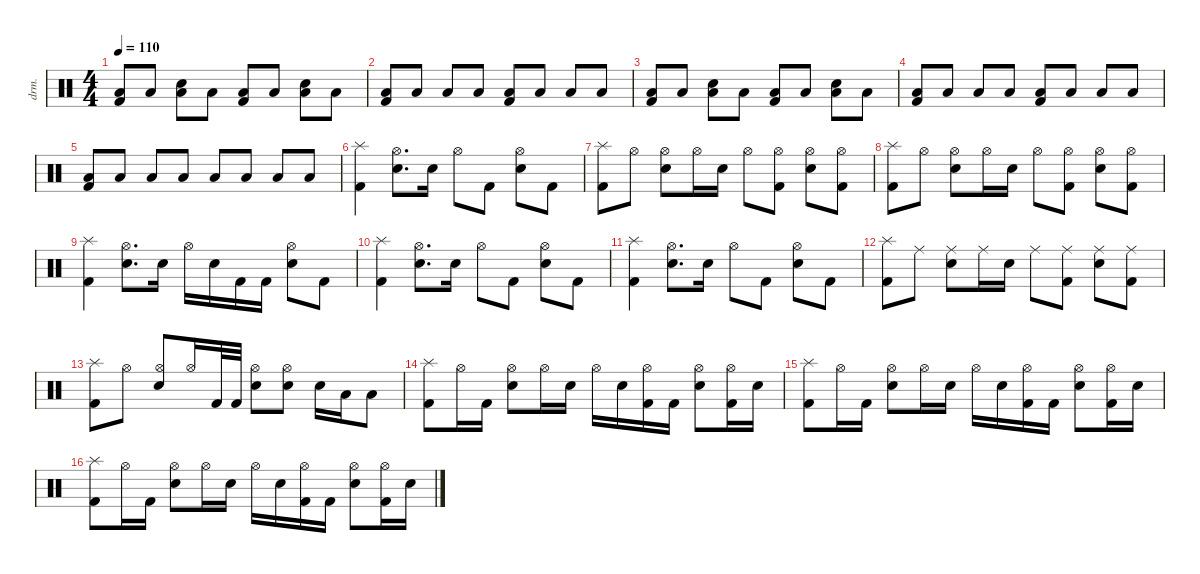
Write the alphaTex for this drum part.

\defaultSystemsLayout 4
\hideDynamics
\bracketExtendMode nobrackets
\track ("Drumkit" "drm.") {instrument percussion}
\staff {score}
\articulation defaults
\ts (4 4)
\tempo 110
\clef neutral
\ks c
("Kick (hit) 2" "Low Tom (hit)").8{dy mf beam Up} "Low Tom (hit)".8{beam Up} ("Low Tom (hit)" "Snare (hit) 2").8{beam Down} "Low Tom (hit)".8{beam Down} ("Low Tom (hit)" "Kick (hit) 2").8{beam Up} "Low Tom (hit)".8{beam Up} ("Snare (hit) 2" "Low Tom (hit)").8{beam Down} "Low Tom (hit)".8{beam Down} |
("Kick (hit) 2" "Low Tom (hit)").8{beam Up} "Low Tom (hit)".8{beam Up} "Low Tom (hit)".8{beam Up} "Low Tom (hit)".8{beam Up} ("Low Tom (hit)" "Kick (hit) 2").8{beam Up} "Low Tom (hit)".8{beam Up} "Low Tom (hit)".8{beam Up} "Low Tom (hit)".8{beam Up} |
("Kick (hit) 2" "Low Tom (hit)").8{beam Up} "Low Tom (hit)".8{beam Up} ("Low Tom (hit)" "Snare (hit) 2").8{beam Down} "Low Tom (hit)".8{beam Down} ("Low Tom (hit)" "Kick (hit) 2").8{beam Up} "Low Tom (hit)".8{beam Up} ("Snare (hit) 2" "Low Tom (hit)").8{beam Down} "Low Tom (hit)".8{beam Down} |
("Kick (hit) 2" "Low Tom (hit)").8{beam Up} "Low Tom (hit)".8{beam Up} "Low Tom (hit)".8{beam Up} "Low Tom (hit)".8{beam Up} ("Low Tom (hit)" "Kick (hit) 2").8{beam Up} "Low Tom (hit)".8{beam Up} "Low Tom (hit)".8{beam Up} "Low Tom (hit)".8{beam Up} |
("Kick (hit) 2" "Low Tom (hit)").8{beam Up} "Low Tom (hit)".8{beam Up} "Low Tom (hit)".8{beam Up} "Low Tom (hit)".8{beam Up} "Low Tom (hit)".8{beam Up} "Low Tom (hit)".8{beam Up} "Low Tom (hit)".8{beam Up} "Low Tom (hit)".8{beam Up} |
("Kick (hit) 2" "Splash (hit)").4{beam Down} ("Hi-Hat (open)" "Snare (hit) 2").8{d beam Down} "Snare (hit) 2".16{beam Down} "Hi-Hat (open)".8{beam Down} "Kick (hit) 2".8{beam Down} ("Snare (hit) 2" "Hi-Hat (open)").8{beam Down} "Kick (hit) 2".8{beam Down} |
("Splash (hit)" "Kick (hit) 2").8{beam Down} "Hi-Hat (open)".8{beam Down} ("Hi-Hat (open)" "Snare (hit) 2").8{beam Down} "Hi-Hat (open)".16{beam Down} "Snare (hit) 2".16{beam Down} "Hi-Hat (open)".8{beam Down} ("Hi-Hat (open)" "Kick (hit) 2").8{beam Down} ("Hi-Hat (open)" "Snare (hit) 2").8{beam Down} ("Hi-Hat (open)" "Kick (hit) 2").8{beam Down} |
("Splash (hit)" "Kick (hit) 2").8{beam Down} "Hi-Hat (open)".8{beam Down} ("Hi-Hat (open)" "Snare (hit) 2").8{beam Down} "Hi-Hat (open)".16{beam Down} "Snare (hit) 2".16{beam Down} "Hi-Hat (open)".8{beam Down} ("Hi-Hat (open)" "Kick (hit) 2").8{beam Down} ("Hi-Hat (open)" "Snare (hit) 2").8{beam Down} ("Hi-Hat (open)" "Kick (hit) 2").8{beam Down} |
("Kick (hit) 2" "Splash (hit)").4{beam Down} ("Hi-Hat (open)" "Snare (hit) 2").8{d beam Down} "Snare (hit) 2".16{beam Down} "Hi-Hat (open)".16{beam Down} "Snare (hit) 2".16{beam Down} "Kick (hit) 2".16{beam Down} "Kick (hit) 2".16{beam Down} ("Hi-Hat (open)" "Snare (hit) 2").8{beam Down} "Kick (hit) 2".8{beam Down} |
("Kick (hit) 2" "Splash (hit)").4{beam Down} ("Hi-Hat (open)" "Snare (hit) 2").8{d beam Down} "Snare (hit) 2".16{beam Down} "Hi-Hat (open)".8{beam Down} "Kick (hit) 2".8{beam Down} ("Snare (hit) 2" "Hi-Hat (open)").8{beam Down} "Kick (hit) 2".8{beam Down} |
("Kick (hit) 2" "Splash (hit)").4{beam Down} ("Hi-Hat (open)" "Snare (hit) 2").8{d beam Down} "Snare (hit) 2".16{beam Down} "Hi-Hat (open)".8{beam Down} "Kick (hit) 2".8{beam Down} ("Snare (hit) 2" "Hi-Hat (open)").8{beam Down} "Kick (hit) 2".8{beam Down} |
("Splash (hit)" "Kick (hit) 2").8{beam Down} "Ride (middle)".8{beam Down} ("Ride (middle)" "Snare (hit) 2").8{beam Down} "Ride (middle)".16{beam Down} "Snare (hit) 2".16{beam Down} "Ride (middle)".8{beam Down} ("Ride (middle)" "Kick (hit) 2").8{beam Down} ("Ride (middle)" "Snare (hit) 2").8{beam Down} ("Ride (middle)" "Kick (hit) 2").8{beam Down} |
("Splash (hit)" "Kick (hit) 2").8{beam Down} "Hi-Hat (open)".8{beam Down} ("Hi-Hat (open)" "Snare (hit) 2").8{beam Up} "Hi-Hat (open)".16{beam Up} "Kick (hit) 2".32{beam Up} "Kick (hit) 2".32{beam Up} ("Snare (hit) 2" "Hi-Hat (open)").8{beam Down} ("Snare (hit) 2" "Hi-Hat (open)").8{beam Down} "Snare (hit) 2".16{beam Down} "Low Tom (hit)".16{beam Down} "Low Tom (hit)".8{beam Down} |
("Kick (hit) 2" "Splash (hit)").8{beam Down} "Hi-Hat (open)".16{beam Down} "Kick (hit) 2".16{beam Down} ("Snare (hit) 2" "Hi-Hat (open)").8{beam Down} "Hi-Hat (open)".16{beam Down} "Snare (hit) 2".16{beam Down} "Hi-Hat (open)".16{beam Down} "Snare (hit) 2".16{beam Down} ("Hi-Hat (open)" "Kick (hit) 2").16{beam Down} "Kick (hit) 2".16{beam Down} ("Hi-Hat (open)" "Snare (hit) 2").8{beam Down} ("Kick (hit) 2" "Hi-Hat (open)").16{beam Down} "Snare (hit) 2".16{beam Down} |
("Splash (hit)" "Kick (hit) 2").8{beam Down} "Hi-Hat (open)".16{beam Down} "Kick (hit) 2".16{beam Down} ("Snare (hit) 2" "Hi-Hat (open)").8{beam Down} "Hi-Hat (open)".16{beam Down} "Snare (hit) 2".16{beam Down} "Hi-Hat (open)".16{beam Down} "Snare (hit) 2".16{beam Down} ("Hi-Hat (open)" "Kick (hit) 2").16{beam Down} "Kick (hit) 2".16{beam Down} ("Hi-Hat (open)" "Snare (hit) 2").8{beam Down} ("Hi-Hat (open)" "Kick (hit) 2").16{beam Down} "Snare (hit) 2".16{beam Down} |
("Splash (hit)" "Kick (hit) 2").8{beam Down} "Hi-Hat (open)".16{beam Down} "Kick (hit) 2".16{beam Down} ("Hi-Hat (open)" "Snare (hit) 2").8{beam Down} "Hi-Hat (open)".16{beam Down} "Snare (hit) 2".16{beam Down} "Hi-Hat (open)".16{beam Down} "Snare (hit) 2".16{beam Down} ("Hi-Hat (open)" "Kick (hit) 2").16{beam Down} "Kick (hit) 2".16{beam Down} ("Hi-Hat (open)" "Snare (hit) 2").8{beam Down} ("Hi-Hat (open)" "Kick (hit) 2").16{beam Down} "Snare (hit) 2".16{beam Down}
